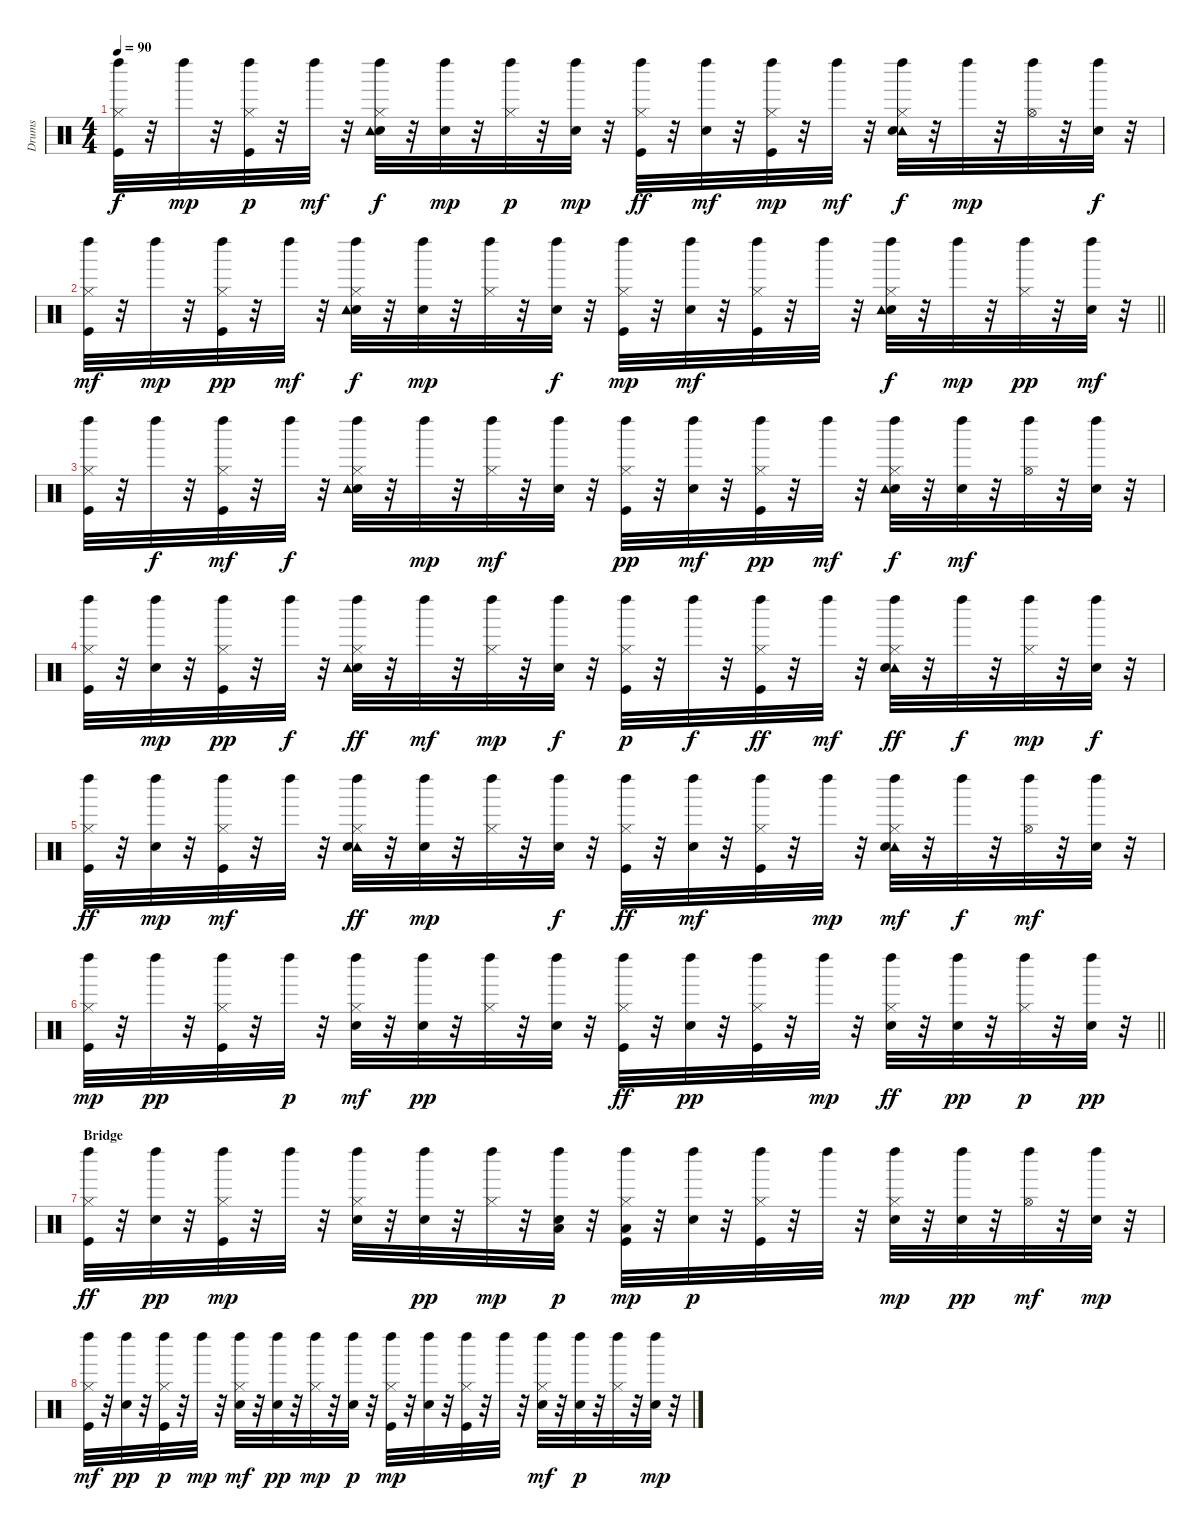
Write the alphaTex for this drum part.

\track ("Drums" "Drums") {instrument percussion}
\staff {score}
\articulation defaults
\ts (4 4)
\tempo 90
\clef neutral
\ks c
("Left Maraca (hit)" "Hi-Hat (closed)" "Kick (hit)").32{dy f} r.32 "Left Maraca (hit)".32{dy mp} r.32 ("Hi-Hat (closed)" "Kick (hit)" "Left Maraca (hit)").32{dy p} r.32 "Left Maraca (hit)".32{dy mf} r.32 ("Electric Snare (hit)" "Tambourine (hit)" "Left Maraca (hit)" "Hi-Hat (closed)").32{dy f} r.32 ("Electric Snare (hit)" "Left Maraca (hit)").32{dy mp} r.32 ("Hi-Hat (closed)" "Left Maraca (hit)").32{dy p} r.32 ("Left Maraca (hit)" "Electric Snare (hit)").32{dy mp} r.32 ("Left Maraca (hit)" "Hi-Hat (closed)" "Kick (hit)").32{dy ff} r.32 ("Left Maraca (hit)" "Electric Snare (hit)").32{dy mf} r.32 ("Kick (hit)" "Hi-Hat (closed)" "Left Maraca (hit)").32{dy mp} r.32 "Left Maraca (hit)".32{dy mf} r.32 ("Tambourine (hit)" "Left Maraca (hit)" "Hi-Hat (closed)" "Electric Snare (hit)").32{dy f} r.32 "Left Maraca (hit)".32{dy mp} r.32 ("Hi-Hat (open)" "Left Maraca (hit)").32 r.32 ("Left Maraca (hit)" "Electric Snare (hit)").32{dy f} r.32 |
\barLineRight lightlight
("Left Maraca (hit)" "Hi-Hat (closed)" "Kick (hit)").32{dy mf} r.32 "Left Maraca (hit)".32{dy mp} r.32 ("Hi-Hat (closed)" "Kick (hit)" "Left Maraca (hit)").32{dy pp} r.32 "Left Maraca (hit)".32{dy mf} r.32 ("Hi-Hat (closed)" "Electric Snare (hit)" "Left Maraca (hit)" "Tambourine (hit)").32{dy f} r.32 ("Electric Snare (hit)" "Left Maraca (hit)").32{dy mp} r.32 ("Hi-Hat (closed)" "Left Maraca (hit)").32 r.32 ("Left Maraca (hit)" "Electric Snare (hit)").32{dy f} r.32 ("Hi-Hat (closed)" "Left Maraca (hit)" "Kick (hit)").32{dy mp} r.32 ("Electric Snare (hit)" "Left Maraca (hit)").32{dy mf} r.32 ("Kick (hit)" "Left Maraca (hit)" "Hi-Hat (closed)").32 r.32 "Left Maraca (hit)".32 r.32 ("Electric Snare (hit)" "Tambourine (hit)" "Left Maraca (hit)" "Hi-Hat (closed)").32{dy f} r.32 "Left Maraca (hit)".32{dy mp} r.32 ("Hi-Hat (closed)" "Left Maraca (hit)").32{dy pp} r.32 ("Electric Snare (hit)" "Left Maraca (hit)").32{dy mf} r.32 |
("Kick (hit)" "Left Maraca (hit)" "Hi-Hat (closed)").32 r.32 "Left Maraca (hit)".32{dy f} r.32 ("Kick (hit)" "Left Maraca (hit)" "Hi-Hat (closed)").32{dy mf} r.32 "Left Maraca (hit)".32{dy f} r.32 ("Electric Snare (hit)" "Tambourine (hit)" "Left Maraca (hit)" "Hi-Hat (closed)").32 r.32 "Left Maraca (hit)".32{dy mp} r.32 ("Left Maraca (hit)" "Hi-Hat (closed)").32{dy mf} r.32 ("Electric Snare (hit)" "Left Maraca (hit)").32 r.32 ("Kick (hit)" "Left Maraca (hit)" "Hi-Hat (closed)").32{dy pp} r.32 ("Electric Snare (hit)" "Left Maraca (hit)").32{dy mf} r.32 ("Hi-Hat (closed)" "Kick (hit)" "Left Maraca (hit)").32{dy pp} r.32 "Left Maraca (hit)".32{dy mf} r.32 ("Hi-Hat (closed)" "Electric Snare (hit)" "Tambourine (hit)" "Left Maraca (hit)").32{dy f} r.32 ("Electric Snare (hit)" "Left Maraca (hit)").32{dy mf} r.32 ("Hi-Hat (open)" "Left Maraca (hit)").32 r.32 ("Left Maraca (hit)" "Electric Snare (hit)").32 r.32 |
("Kick (hit)" "Left Maraca (hit)" "Hi-Hat (closed)").32 r.32 ("Electric Snare (hit)" "Left Maraca (hit)").32{dy mp} r.32 ("Hi-Hat (closed)" "Kick (hit)" "Left Maraca (hit)").32{dy pp} r.32 "Left Maraca (hit)".32{dy f} r.32 ("Hi-Hat (closed)" "Electric Snare (hit)" "Tambourine (hit)" "Left Maraca (hit)").32{dy ff} r.32 "Left Maraca (hit)".32{dy mf} r.32 ("Hi-Hat (closed)" "Left Maraca (hit)").32{dy mp} r.32 ("Left Maraca (hit)" "Electric Snare (hit)").32{dy f} r.32 ("Kick (hit)" "Left Maraca (hit)" "Hi-Hat (closed)").32{dy p} r.32 "Left Maraca (hit)".32{dy f} r.32 ("Hi-Hat (closed)" "Left Maraca (hit)" "Kick (hit)").32{dy ff} r.32 "Left Maraca (hit)".32{dy mf} r.32 ("Tambourine (hit)" "Left Maraca (hit)" "Electric Snare (hit)" "Hi-Hat (closed)").32{dy ff} r.32 "Left Maraca (hit)".32{dy f} r.32 ("Left Maraca (hit)" "Hi-Hat (closed)").32{dy mp} r.32 ("Left Maraca (hit)" "Electric Snare (hit)").32{dy f} r.32 |
("Kick (hit)" "Hi-Hat (closed)" "Left Maraca (hit)").32{dy ff} r.32 ("Electric Snare (hit)" "Left Maraca (hit)").32{dy mp} r.32 ("Kick (hit)" "Left Maraca (hit)" "Hi-Hat (closed)").32{dy mf} r.32 "Left Maraca (hit)".32 r.32 ("Tambourine (hit)" "Hi-Hat (closed)" "Electric Snare (hit)" "Left Maraca (hit)").32{dy ff} r.32 ("Left Maraca (hit)" "Electric Snare (hit)").32{dy mp} r.32 ("Hi-Hat (closed)" "Left Maraca (hit)").32 r.32 ("Left Maraca (hit)" "Electric Snare (hit)").32{dy f} r.32 ("Left Maraca (hit)" "Hi-Hat (closed)" "Kick (hit)").32{dy ff} r.32 ("Left Maraca (hit)" "Electric Snare (hit)").32{dy mf} r.32 ("Left Maraca (hit)" "Hi-Hat (closed)" "Kick (hit)").32 r.32 "Left Maraca (hit)".32{dy mp} r.32 ("Tambourine (hit)" "Hi-Hat (closed)" "Electric Snare (hit)" "Left Maraca (hit)").32{dy mf} r.32 "Left Maraca (hit)".32{dy f} r.32 ("Hi-Hat (open)" "Left Maraca (hit)").32{dy mf} r.32 ("Electric Snare (hit)" "Left Maraca (hit)").32 r.32 |
\barLineRight lightlight
("Hi-Hat (closed)" "Kick (hit)" "Left Maraca (hit)").32{dy mp} r.32 "Left Maraca (hit)".32{dy pp} r.32 ("Kick (hit)" "Hi-Hat (closed)" "Left Maraca (hit)").32 r.32 "Left Maraca (hit)".32{dy p} r.32 ("Left Maraca (hit)" "Hi-Hat (closed)" "Electric Snare (hit)").32{dy mf} r.32 ("Left Maraca (hit)" "Electric Snare (hit)").32{dy pp} r.32 ("Left Maraca (hit)" "Hi-Hat (closed)").32 r.32 ("Electric Snare (hit)" "Left Maraca (hit)").32 r.32 ("Left Maraca (hit)" "Hi-Hat (closed)" "Kick (hit)").32{dy ff} r.32 ("Electric Snare (hit)" "Left Maraca (hit)").32{dy pp} r.32 ("Hi-Hat (closed)" "Kick (hit)" "Left Maraca (hit)").32 r.32 "Left Maraca (hit)".32{dy mp} r.32 ("Electric Snare (hit)" "Left Maraca (hit)" "Hi-Hat (closed)").32{dy ff} r.32 ("Electric Snare (hit)" "Left Maraca (hit)").32{dy pp} r.32 ("Hi-Hat (closed)" "Left Maraca (hit)").32{dy p} r.32 ("Left Maraca (hit)" "Electric Snare (hit)").32{dy pp} r.32 |
\section ("" "Bridge")
("Left Maraca (hit)" "Kick (hit)" "Hi-Hat (closed)").32{dy ff} r.32 ("Left Maraca (hit)" "Electric Snare (hit)").32{dy pp} r.32 ("Kick (hit)" "Left Maraca (hit)" "Hi-Hat (closed)").32{dy mp} r.32 "Left Maraca (hit)".32 r.32 ("Hi-Hat (closed)" "Electric Snare (hit)" "Left Maraca (hit)").32 r.32 ("Electric Snare (hit)" "Left Maraca (hit)").32{dy pp} r.32 ("Hi-Hat (closed)" "Left Maraca (hit)").32{dy mp} r.32 ("Electric Snare (hit)" "Low Tom (hit)" "Left Maraca (hit)").32{dy p} r.32 ("Hi-Hat (closed)" "Kick (hit)" "Low Floor Tom (hit)" "Left Maraca (hit)").32{dy mp} r.32 ("Electric Snare (hit)" "Left Maraca (hit)").32{dy p} r.32 ("Kick (hit)" "Hi-Hat (closed)" "Left Maraca (hit)").32 r.32 "Left Maraca (hit)".32 r.32 ("Hi-Hat (closed)" "Electric Snare (hit)" "Left Maraca (hit)").32{dy mp} r.32 ("Electric Snare (hit)" "Left Maraca (hit)").32{dy pp} r.32 ("Left Maraca (hit)" "Hi-Hat (open)").32{dy mf} r.32 ("Electric Snare (hit)" "Left Maraca (hit)").32{dy mp} r.32 |
("Hi-Hat (closed)" "Kick (hit)" "Left Maraca (hit)").32{dy mf} r.32 ("Electric Snare (hit)" "Left Maraca (hit)").32{dy pp} r.32 ("Kick (hit)" "Hi-Hat (closed)" "Left Maraca (hit)").32{dy p} r.32 "Left Maraca (hit)".32{dy mp} r.32 ("Electric Snare (hit)" "Hi-Hat (closed)" "Left Maraca (hit)").32{dy mf} r.32 ("Electric Snare (hit)" "Left Maraca (hit)").32{dy pp} r.32 ("Hi-Hat (closed)" "Left Maraca (hit)").32{dy mp} r.32 ("Electric Snare (hit)" "Left Maraca (hit)").32{dy p} r.32 ("Hi-Hat (closed)" "Kick (hit)" "Left Maraca (hit)").32{dy mp} r.32 ("Electric Snare (hit)" "Left Maraca (hit)").32 r.32 ("Hi-Hat (closed)" "Kick (hit)" "Left Maraca (hit)").32 r.32 "Left Maraca (hit)".32 r.32 ("Hi-Hat (closed)" "Electric Snare (hit)" "Left Maraca (hit)").32{dy mf} r.32 ("Electric Snare (hit)" "Left Maraca (hit)").32{dy p} r.32 ("Hi-Hat (closed)" "Left Maraca (hit)").32 r.32 ("Electric Snare (hit)" "Left Maraca (hit)").32{dy mp} r.32
